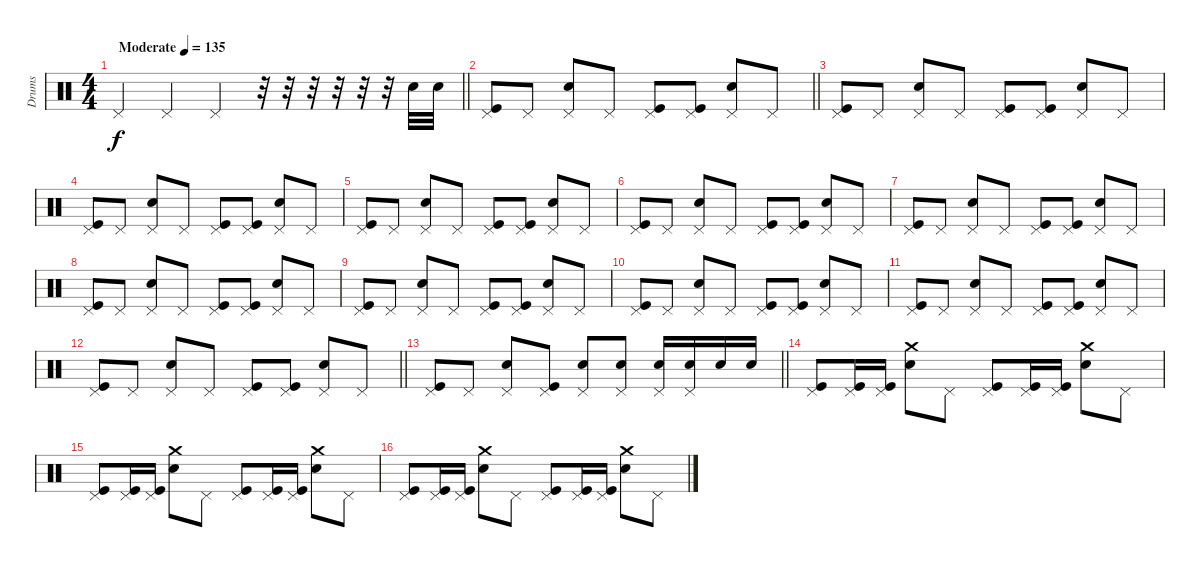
\track ("Drums" "Drums") {instrument percussion}
\staff {score}
\articulation defaults
\ts (4 4)
\tempo (135 "Moderate")
\clef neutral
\barLineRight lightlight
\ks c "Pedal Hi-Hat (hit)".4{dy f} "Pedal Hi-Hat (hit)".4 "Pedal Hi-Hat (hit)".4
r.32 r.32 r.32 r.32 r.32 r.32 "Electric Snare (hit)".32 "Electric Snare (hit)".32 |
\barLineRight lightlight
("Pedal Hi-Hat (hit)" "Kick (hit)").8 "Pedal Hi-Hat (hit)".8 ("Pedal Hi-Hat (hit)" "Electric Snare (hit)").8 "Pedal Hi-Hat (hit)".8 ("Pedal Hi-Hat (hit)" "Kick (hit)").8 ("Pedal Hi-Hat (hit)" "Kick (hit)").8 ("Pedal Hi-Hat (hit)" "Electric Snare (hit)").8 "Pedal Hi-Hat (hit)".8 |
("Pedal Hi-Hat (hit)" "Kick (hit)").8 "Pedal Hi-Hat (hit)".8 ("Pedal Hi-Hat (hit)" "Electric Snare (hit)").8 "Pedal Hi-Hat (hit)".8 ("Pedal Hi-Hat (hit)" "Kick (hit)").8 ("Pedal Hi-Hat (hit)" "Kick (hit)").8 ("Pedal Hi-Hat (hit)" "Electric Snare (hit)").8 "Pedal Hi-Hat (hit)".8 |
("Pedal Hi-Hat (hit)" "Kick (hit)").8 "Pedal Hi-Hat (hit)".8 ("Pedal Hi-Hat (hit)" "Electric Snare (hit)").8 "Pedal Hi-Hat (hit)".8 ("Pedal Hi-Hat (hit)" "Kick (hit)").8 ("Pedal Hi-Hat (hit)" "Kick (hit)").8 ("Pedal Hi-Hat (hit)" "Electric Snare (hit)").8 "Pedal Hi-Hat (hit)".8 |
("Pedal Hi-Hat (hit)" "Kick (hit)").8 "Pedal Hi-Hat (hit)".8 ("Pedal Hi-Hat (hit)" "Electric Snare (hit)").8 "Pedal Hi-Hat (hit)".8 ("Pedal Hi-Hat (hit)" "Kick (hit)").8 ("Pedal Hi-Hat (hit)" "Kick (hit)").8 ("Pedal Hi-Hat (hit)" "Electric Snare (hit)").8 "Pedal Hi-Hat (hit)".8 |
("Pedal Hi-Hat (hit)" "Kick (hit)").8 "Pedal Hi-Hat (hit)".8 ("Pedal Hi-Hat (hit)" "Electric Snare (hit)").8 "Pedal Hi-Hat (hit)".8 ("Pedal Hi-Hat (hit)" "Kick (hit)").8 ("Pedal Hi-Hat (hit)" "Kick (hit)").8 ("Pedal Hi-Hat (hit)" "Electric Snare (hit)").8 "Pedal Hi-Hat (hit)".8 |
("Pedal Hi-Hat (hit)" "Kick (hit)").8 "Pedal Hi-Hat (hit)".8 ("Pedal Hi-Hat (hit)" "Electric Snare (hit)").8 "Pedal Hi-Hat (hit)".8 ("Pedal Hi-Hat (hit)" "Kick (hit)").8 ("Pedal Hi-Hat (hit)" "Kick (hit)").8 ("Pedal Hi-Hat (hit)" "Electric Snare (hit)").8 "Pedal Hi-Hat (hit)".8 |
("Pedal Hi-Hat (hit)" "Kick (hit)").8 "Pedal Hi-Hat (hit)".8 ("Pedal Hi-Hat (hit)" "Electric Snare (hit)").8 "Pedal Hi-Hat (hit)".8 ("Pedal Hi-Hat (hit)" "Kick (hit)").8 ("Pedal Hi-Hat (hit)" "Kick (hit)").8 ("Pedal Hi-Hat (hit)" "Electric Snare (hit)").8 "Pedal Hi-Hat (hit)".8 |
("Pedal Hi-Hat (hit)" "Kick (hit)").8 "Pedal Hi-Hat (hit)".8 ("Pedal Hi-Hat (hit)" "Electric Snare (hit)").8 "Pedal Hi-Hat (hit)".8 ("Pedal Hi-Hat (hit)" "Kick (hit)").8 ("Pedal Hi-Hat (hit)" "Kick (hit)").8 ("Pedal Hi-Hat (hit)" "Electric Snare (hit)").8 "Pedal Hi-Hat (hit)".8 |
("Pedal Hi-Hat (hit)" "Kick (hit)").8 "Pedal Hi-Hat (hit)".8 ("Pedal Hi-Hat (hit)" "Electric Snare (hit)").8 "Pedal Hi-Hat (hit)".8 ("Pedal Hi-Hat (hit)" "Kick (hit)").8 ("Pedal Hi-Hat (hit)" "Kick (hit)").8 ("Pedal Hi-Hat (hit)" "Electric Snare (hit)").8 "Pedal Hi-Hat (hit)".8 |
("Pedal Hi-Hat (hit)" "Kick (hit)").8 "Pedal Hi-Hat (hit)".8 ("Pedal Hi-Hat (hit)" "Electric Snare (hit)").8 "Pedal Hi-Hat (hit)".8 ("Pedal Hi-Hat (hit)" "Kick (hit)").8 ("Pedal Hi-Hat (hit)" "Kick (hit)").8 ("Pedal Hi-Hat (hit)" "Electric Snare (hit)").8 "Pedal Hi-Hat (hit)".8 |
\barLineRight lightlight
("Pedal Hi-Hat (hit)" "Kick (hit)").8 "Pedal Hi-Hat (hit)".8 ("Pedal Hi-Hat (hit)" "Electric Snare (hit)").8 "Pedal Hi-Hat (hit)".8 ("Pedal Hi-Hat (hit)" "Kick (hit)").8 ("Pedal Hi-Hat (hit)" "Kick (hit)").8 ("Pedal Hi-Hat (hit)" "Electric Snare (hit)").8 "Pedal Hi-Hat (hit)".8 |
\barLineRight lightlight
("Pedal Hi-Hat (hit)" "Kick (hit)").8 "Pedal Hi-Hat (hit)".8 ("Pedal Hi-Hat (hit)" "Electric Snare (hit)").8 ("Pedal Hi-Hat (hit)" "Kick (hit)").8 ("Pedal Hi-Hat (hit)" "Electric Snare (hit)").8 ("Pedal Hi-Hat (hit)" "Electric Snare (hit)").8 ("Pedal Hi-Hat (hit)" "Electric Snare (hit)").16 ("Pedal Hi-Hat (hit)" "Electric Snare (hit)").16 "Electric Snare (hit)".16 "Electric Snare (hit)".16 |
("Pedal Hi-Hat (hit)" "Kick (hit)").8 ("Pedal Hi-Hat (hit)" "Kick (hit)").16 ("Pedal Hi-Hat (hit)" "Kick (hit)").16 ("Crash medium (hit)" "Electric Snare (hit)").8 "Pedal Hi-Hat (hit)".8 ("Pedal Hi-Hat (hit)" "Kick (hit)").8 ("Pedal Hi-Hat (hit)" "Kick (hit)").16 ("Pedal Hi-Hat (hit)" "Kick (hit)").16 ("Crash medium (hit)" "Electric Snare (hit)").8 "Pedal Hi-Hat (hit)".8 |
("Pedal Hi-Hat (hit)" "Kick (hit)").8 ("Pedal Hi-Hat (hit)" "Kick (hit)").16 ("Pedal Hi-Hat (hit)" "Kick (hit)").16 ("Crash medium (hit)" "Electric Snare (hit)").8 "Pedal Hi-Hat (hit)".8 ("Pedal Hi-Hat (hit)" "Kick (hit)").8 ("Pedal Hi-Hat (hit)" "Kick (hit)").16 ("Pedal Hi-Hat (hit)" "Kick (hit)").16 ("Crash medium (hit)" "Electric Snare (hit)").8 "Pedal Hi-Hat (hit)".8 |
("Pedal Hi-Hat (hit)" "Kick (hit)").8 ("Pedal Hi-Hat (hit)" "Kick (hit)").16 ("Pedal Hi-Hat (hit)" "Kick (hit)").16 ("Crash medium (hit)" "Electric Snare (hit)").8 "Pedal Hi-Hat (hit)".8 ("Pedal Hi-Hat (hit)" "Kick (hit)").8 ("Pedal Hi-Hat (hit)" "Kick (hit)").16 ("Pedal Hi-Hat (hit)" "Kick (hit)").16 ("Crash medium (hit)" "Electric Snare (hit)").8 "Pedal Hi-Hat (hit)".8
